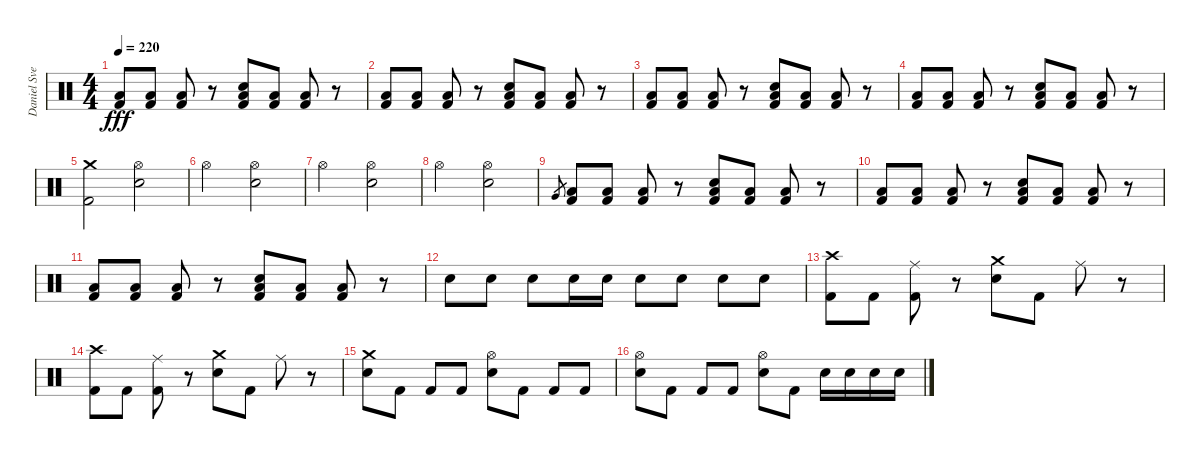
\track ("Daniel Svensson" "Daniel Sve") {instrument percussion}
\staff {score}
\articulation defaults
\ts (4 4)
\tempo 220
\clef neutral
\ks c
("Low Floor Tom (hit)" "Kick (hit) 2").8{dy fff} ("Low Floor Tom (hit)" "Kick (hit) 2").8 ("Low Floor Tom (hit)" "Kick (hit) 2").8 r.8 ("Low Floor Tom (hit)" "Electric Snare (hit)" "Kick (hit) 2").8 ("Low Floor Tom (hit)" "Kick (hit) 2").8 ("Low Floor Tom (hit)" "Kick (hit) 2").8 r.8 |
("Low Floor Tom (hit)" "Kick (hit) 2").8 ("Low Floor Tom (hit)" "Kick (hit) 2").8 ("Low Floor Tom (hit)" "Kick (hit) 2").8 r.8 ("Low Floor Tom (hit)" "Electric Snare (hit)" "Kick (hit) 2").8 ("Low Floor Tom (hit)" "Kick (hit) 2").8 ("Low Floor Tom (hit)" "Kick (hit) 2").8 r.8 |
("Low Floor Tom (hit)" "Kick (hit) 2").8 ("Low Floor Tom (hit)" "Kick (hit) 2").8 ("Low Floor Tom (hit)" "Kick (hit) 2").8 r.8 ("Low Floor Tom (hit)" "Electric Snare (hit)" "Kick (hit) 2").8 ("Low Floor Tom (hit)" "Kick (hit) 2").8 ("Low Floor Tom (hit)" "Kick (hit) 2").8 r.8 |
("Low Floor Tom (hit)" "Kick (hit) 2").8 ("Low Floor Tom (hit)" "Kick (hit) 2").8 ("Low Floor Tom (hit)" "Kick (hit) 2").8 r.8 ("Low Floor Tom (hit)" "Electric Snare (hit)" "Kick (hit) 2").8 ("Low Floor Tom (hit)" "Kick (hit) 2").8 ("Low Floor Tom (hit)" "Kick (hit) 2").8 r.8 |
("Crash medium (hit)" "Kick (hit) 2").2 ("Hi-Hat (open)" "Electric Snare (hit)").2 |
"Hi-Hat (open)".2 ("Hi-Hat (open)" "Electric Snare (hit)").2 |
"Hi-Hat (open)".2 ("Hi-Hat (open)" "Electric Snare (hit)").2 |
"Hi-Hat (open)".2 ("Hi-Hat (open)" "Electric Snare (hit)").2 |
"Very Low Tom (hit)".8{gr} ("Low Floor Tom (hit)" "Kick (hit) 2").8 ("Low Floor Tom (hit)" "Kick (hit) 2").8 ("Low Floor Tom (hit)" "Kick (hit) 2").8 r.8 ("Low Floor Tom (hit)" "Electric Snare (hit)" "Kick (hit) 2").8 ("Low Floor Tom (hit)" "Kick (hit) 2").8 ("Low Floor Tom (hit)" "Kick (hit) 2").8 r.8 |
("Low Floor Tom (hit)" "Kick (hit) 2").8 ("Low Floor Tom (hit)" "Kick (hit) 2").8 ("Low Floor Tom (hit)" "Kick (hit) 2").8 r.8 ("Low Floor Tom (hit)" "Electric Snare (hit)" "Kick (hit) 2").8 ("Low Floor Tom (hit)" "Kick (hit) 2").8 ("Low Floor Tom (hit)" "Kick (hit) 2").8 r.8 |
("Low Floor Tom (hit)" "Kick (hit) 2").8 ("Low Floor Tom (hit)" "Kick (hit) 2").8 ("Low Floor Tom (hit)" "Kick (hit) 2").8 r.8 ("Low Floor Tom (hit)" "Electric Snare (hit)" "Kick (hit) 2").8 ("Low Floor Tom (hit)" "Kick (hit) 2").8 ("Low Floor Tom (hit)" "Kick (hit) 2").8 r.8 |
"Electric Snare (hit)".8 "Electric Snare (hit)".8 "Electric Snare (hit)".8 "Electric Snare (hit)".16 "Electric Snare (hit)".16 "Electric Snare (hit)".8 "Electric Snare (hit)".8 "Electric Snare (hit)".8 "Electric Snare (hit)".8 |
("Crash high (hit)" "Kick (hit) 2").8 "Kick (hit) 2".8 ("Ride (middle)" "Kick (hit) 2").8 r.8 ("Crash medium (hit)" "Electric Snare (hit)").8 "Kick (hit) 2".8 "Ride (middle)".8 r.8 |
("Crash high (hit)" "Kick (hit) 2").8 "Kick (hit) 2".8 ("Ride (middle)" "Kick (hit) 2").8 r.8 ("Crash medium (hit)" "Electric Snare (hit)").8 "Kick (hit) 2".8 "Ride (middle)".8 r.8 |
("Crash medium (hit)" "Electric Snare (hit)").8 "Kick (hit) 2".8 "Kick (hit) 2".8 "Kick (hit) 2".8 ("Hi-Hat (open)" "Electric Snare (hit)").8 "Kick (hit) 2".8 "Kick (hit) 2".8 "Kick (hit) 2".8 |
("Hi-Hat (open)" "Electric Snare (hit)").8 "Kick (hit) 2".8 "Kick (hit) 2".8 "Kick (hit) 2".8 ("Hi-Hat (open)" "Electric Snare (hit)").8 "Kick (hit) 2".8 "Electric Snare (hit)".16 "Electric Snare (hit)".16 "Electric Snare (hit)".16 "Electric Snare (hit)".16
